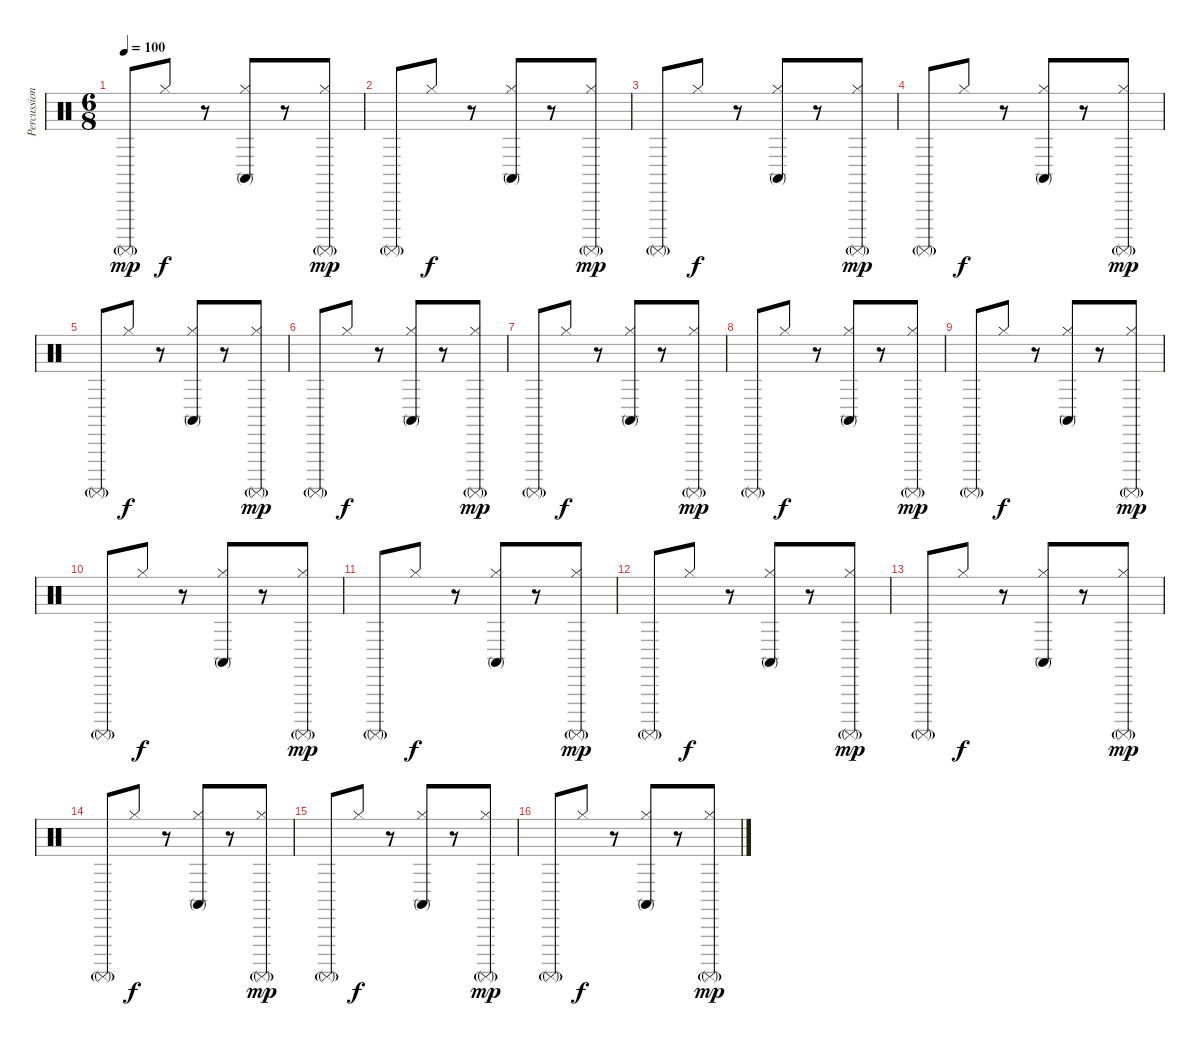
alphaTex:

\track ("Percussion" "Percussion") {instrument percussion}
\staff {score}
\articulation defaults
\ts (6 8)
\tempo 100
\clef neutral
\ks c "Surdo (mute)"{g}.8{dy mp} "Hi-Hat (closed)".8{dy f}
r.8 ("Conga high (mute)" "Hi-Hat (closed)").8 r.8 ("Hi-Hat (closed)" "Surdo (mute)"{g}).8{dy mp} |
"Surdo (mute)"{g}.8 "Hi-Hat (closed)".8{dy f} r.8 ("Conga high (mute)" "Hi-Hat (closed)").8 r.8 ("Hi-Hat (closed)" "Surdo (mute)"{g}).8{dy mp} |
"Surdo (mute)"{g}.8 "Hi-Hat (closed)".8{dy f} r.8 ("Conga high (mute)" "Hi-Hat (closed)").8 r.8 ("Hi-Hat (closed)" "Surdo (mute)"{g}).8{dy mp} |
"Surdo (mute)"{g}.8 "Hi-Hat (closed)".8{dy f} r.8 ("Conga high (mute)" "Hi-Hat (closed)").8 r.8 ("Hi-Hat (closed)" "Surdo (mute)"{g}).8{dy mp} |
"Surdo (mute)"{g}.8 "Hi-Hat (closed)".8{dy f} r.8 ("Conga high (mute)" "Hi-Hat (closed)").8 r.8 ("Hi-Hat (closed)" "Surdo (mute)"{g}).8{dy mp} |
"Surdo (mute)"{g}.8 "Hi-Hat (closed)".8{dy f} r.8 ("Conga high (mute)" "Hi-Hat (closed)").8 r.8 ("Hi-Hat (closed)" "Surdo (mute)"{g}).8{dy mp} |
"Surdo (mute)"{g}.8 "Hi-Hat (closed)".8{dy f} r.8 ("Conga high (mute)" "Hi-Hat (closed)").8 r.8 ("Hi-Hat (closed)" "Surdo (mute)"{g}).8{dy mp} |
"Surdo (mute)"{g}.8 "Hi-Hat (closed)".8{dy f} r.8 ("Conga high (mute)" "Hi-Hat (closed)").8 r.8 ("Hi-Hat (closed)" "Surdo (mute)"{g}).8{dy mp} |
"Surdo (mute)"{g}.8 "Hi-Hat (closed)".8{dy f} r.8 ("Conga high (mute)" "Hi-Hat (closed)").8 r.8 ("Hi-Hat (closed)" "Surdo (mute)"{g}).8{dy mp} |
"Surdo (mute)"{g}.8 "Hi-Hat (closed)".8{dy f} r.8 ("Conga high (mute)" "Hi-Hat (closed)").8 r.8 ("Hi-Hat (closed)" "Surdo (mute)"{g}).8{dy mp} |
"Surdo (mute)"{g}.8 "Hi-Hat (closed)".8{dy f} r.8 ("Conga high (mute)" "Hi-Hat (closed)").8 r.8 ("Hi-Hat (closed)" "Surdo (mute)"{g}).8{dy mp} |
"Surdo (mute)"{g}.8 "Hi-Hat (closed)".8{dy f} r.8 ("Conga high (mute)" "Hi-Hat (closed)").8 r.8 ("Hi-Hat (closed)" "Surdo (mute)"{g}).8{dy mp} |
"Surdo (mute)"{g}.8 "Hi-Hat (closed)".8{dy f} r.8 ("Conga high (mute)" "Hi-Hat (closed)").8 r.8 ("Hi-Hat (closed)" "Surdo (mute)"{g}).8{dy mp} |
"Surdo (mute)"{g}.8 "Hi-Hat (closed)".8{dy f} r.8 ("Conga high (mute)" "Hi-Hat (closed)").8 r.8 ("Hi-Hat (closed)" "Surdo (mute)"{g}).8{dy mp} |
"Surdo (mute)"{g}.8 "Hi-Hat (closed)".8{dy f} r.8 ("Conga high (mute)" "Hi-Hat (closed)").8 r.8 ("Hi-Hat (closed)" "Surdo (mute)"{g}).8{dy mp} |
"Surdo (mute)"{g}.8 "Hi-Hat (closed)".8{dy f} r.8 ("Conga high (mute)" "Hi-Hat (closed)").8 r.8 ("Hi-Hat (closed)" "Surdo (mute)"{g}).8{dy mp}
